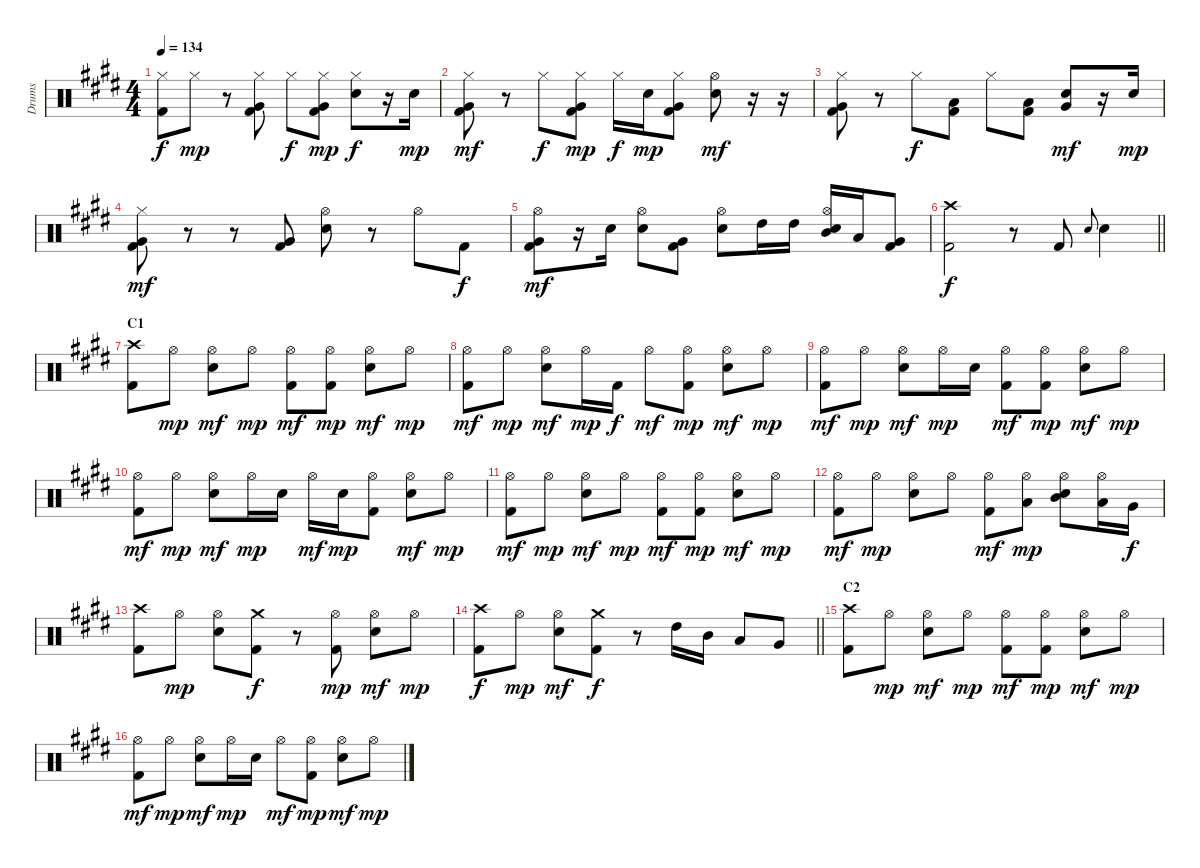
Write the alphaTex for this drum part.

\track ("Drums" "Drums") {instrument percussion}
\staff {score}
\articulation defaults
\ts (4 4)
\tempo 134
\clef neutral
\ks e
("Hi-Hat (closed)" "Kick (hit) 2").8{dy f} "Hi-Hat (closed)".8{dy mp} r.8 ("Hi-Hat (closed)" "Very Low Tom (hit)" "Kick (hit) 2").8 "Hi-Hat (closed)".8{dy f} ("Hi-Hat (closed)" "Very Low Tom (hit)" "Kick (hit) 2").8{dy mp} ("Hi-Hat (closed)" "Electric Snare (hit)").8{dy f} r.16 "Electric Snare (hit)".16{dy mp} |
("Hi-Hat (closed)" "Very Low Tom (hit)" "Kick (hit) 2").8{dy mf} r.8 "Hi-Hat (closed)".8{dy f} ("Hi-Hat (closed)" "Very Low Tom (hit)" "Kick (hit) 2").8{dy mp} "Hi-Hat (closed)".16{dy f} "Electric Snare (hit)".16{dy mp} ("Hi-Hat (closed)" "Very Low Tom (hit)" "Kick (hit) 2").8 ("Hi-Hat (open)" "Electric Snare (hit)").8{dy mf} r.16 r.16 |
("Hi-Hat (closed)" "Very Low Tom (hit)" "Kick (hit) 2").8 r.8 "Hi-Hat (closed)".8{dy f} ("Low Tom (hit)" "Kick (hit) 2").8 "Hi-Hat (closed)".8 ("Low Tom (hit)" "Kick (hit) 2").8 ("Very Low Tom (hit)" "Electric Snare (hit)").8{dy mf} r.16 "Electric Snare (hit)".16{dy mp} |
("Hi-Hat (closed)" "Very Low Tom (hit)" "Kick (hit) 2").8{dy mf} r.8 r.8 ("Very Low Tom (hit)" "Kick (hit) 2").8 ("Hi-Hat (open)" "Electric Snare (hit)").8 r.8 "Hi-Hat (open)".8 "Kick (hit) 2".8{dy f} |
("Hi-Hat (open)" "Very Low Tom (hit)" "Kick (hit) 2").8{dy mf} r.16 "Electric Snare (hit)".16 ("Hi-Hat (open)" "Electric Snare (hit)").8 ("Very Low Tom (hit)" "Kick (hit) 2").8 ("Hi-Hat (open)" "Electric Snare (hit)").8 "High Tom (hit)".16 "High Tom (hit)".16 ("Hi-Hat (open)" "Mid Tom (hit)" "Electric Snare (hit)").16 "Low Tom (hit)".16 ("Very Low Tom (hit)" "Kick (hit) 2").8 |
\barLineRight lightlight
("Crash high (hit)" "Kick (hit) 2").2{dy f} r.8 "Kick (hit) 2".8 "Electric Snare (hit)".8{gr onbeat} "Electric Snare (hit)".4 |
\section ("" "C1")
("Crash high (hit)" "Kick (hit) 2").8 "Hi-Hat (open)".8{dy mp} ("Hi-Hat (open)" "Electric Snare (hit)").8{dy mf} "Hi-Hat (open)".8{dy mp} ("Hi-Hat (open)" "Kick (hit) 2").8{dy mf} ("Hi-Hat (open)" "Kick (hit) 2").8{dy mp} ("Hi-Hat (open)" "Electric Snare (hit)").8{dy mf} "Hi-Hat (open)".8{dy mp} |
("Hi-Hat (open)" "Kick (hit) 2").8{dy mf} "Hi-Hat (open)".8{dy mp} ("Hi-Hat (open)" "Electric Snare (hit)").8{dy mf} "Hi-Hat (open)".16{dy mp} "Kick (hit) 2".16{dy f} "Hi-Hat (open)".8{dy mf} ("Hi-Hat (open)" "Kick (hit) 2").8{dy mp} ("Hi-Hat (open)" "Electric Snare (hit)").8{dy mf} "Hi-Hat (open)".8{dy mp} |
("Hi-Hat (open)" "Kick (hit) 2").8{dy mf} "Hi-Hat (open)".8{dy mp} ("Hi-Hat (open)" "Electric Snare (hit)").8{dy mf} "Hi-Hat (open)".16{dy mp} "Electric Snare (hit)".16 ("Hi-Hat (open)" "Kick (hit) 2").8{dy mf} ("Hi-Hat (open)" "Kick (hit) 2").8{dy mp} ("Hi-Hat (open)" "Electric Snare (hit)").8{dy mf} "Hi-Hat (open)".8{dy mp} |
("Hi-Hat (open)" "Kick (hit) 2").8{dy mf} "Hi-Hat (open)".8{dy mp} ("Hi-Hat (open)" "Electric Snare (hit)").8{dy mf} "Hi-Hat (open)".16{dy mp} "Electric Snare (hit)".16 "Hi-Hat (open)".16{dy mf} "Electric Snare (hit)".16{dy mp} ("Hi-Hat (open)" "Kick (hit) 2").8 ("Hi-Hat (open)" "Electric Snare (hit)").8{dy mf} "Hi-Hat (open)".8{dy mp} |
("Hi-Hat (open)" "Kick (hit) 2").8{dy mf} "Hi-Hat (open)".8{dy mp} ("Hi-Hat (open)" "Electric Snare (hit)").8{dy mf} "Hi-Hat (open)".8{dy mp} ("Hi-Hat (open)" "Kick (hit) 2").8{dy mf} ("Hi-Hat (open)" "Kick (hit) 2").8{dy mp} ("Hi-Hat (open)" "Electric Snare (hit)").8{dy mf} "Hi-Hat (open)".8{dy mp} |
("Hi-Hat (open)" "Kick (hit) 2").8{dy mf} "Hi-Hat (open)".8{dy mp} ("Hi-Hat (open)" "Electric Snare (hit)").8 "Hi-Hat (open)".8 ("Hi-Hat (open)" "Kick (hit) 2").8{dy mf} ("Hi-Hat (open)" "Low Tom (hit)").8{dy mp} ("Hi-Hat (open)" "Mid Tom (hit)" "Electric Snare (hit)").8 ("Hi-Hat (open)" "Low Tom (hit)").16 "Very Low Tom (hit)".16{dy f} |
("Crash high (hit)" "Kick (hit) 2").8 "Hi-Hat (open)".8{dy mp} ("Hi-Hat (open)" "Electric Snare (hit)").8 ("Crash medium (hit)" "Kick (hit) 2").8{dy f} r.8 ("Hi-Hat (open)" "Kick (hit) 2").8{dy mp} ("Hi-Hat (open)" "Electric Snare (hit)").8{dy mf} "Hi-Hat (open)".8{dy mp} |
\barLineRight lightlight
("Crash high (hit)" "Kick (hit) 2").8{dy f} "Hi-Hat (open)".8{dy mp} ("Hi-Hat (open)" "Electric Snare (hit)").8{dy mf} ("Crash medium (hit)" "Kick (hit) 2").8{dy f} r.8 "High Tom (hit)".16 "Mid Tom (hit)".16 "Low Tom (hit)".8 "Very Low Tom (hit)".8 |
\section ("" "C2")
("Crash high (hit)" "Kick (hit) 2").8 "Hi-Hat (open)".8{dy mp} ("Hi-Hat (open)" "Electric Snare (hit)").8{dy mf} "Hi-Hat (open)".8{dy mp} ("Hi-Hat (open)" "Kick (hit) 2").8{dy mf} ("Hi-Hat (open)" "Kick (hit) 2").8{dy mp} ("Hi-Hat (open)" "Electric Snare (hit)").8{dy mf} "Hi-Hat (open)".8{dy mp} |
("Hi-Hat (open)" "Kick (hit) 2").8{dy mf} "Hi-Hat (open)".8{dy mp} ("Hi-Hat (open)" "Electric Snare (hit)").8{dy mf} "Hi-Hat (open)".16{dy mp} "Electric Snare (hit)".16 "Hi-Hat (open)".8{dy mf} ("Hi-Hat (open)" "Kick (hit) 2").8{dy mp} ("Hi-Hat (open)" "Electric Snare (hit)").8{dy mf} "Hi-Hat (open)".8{dy mp}
